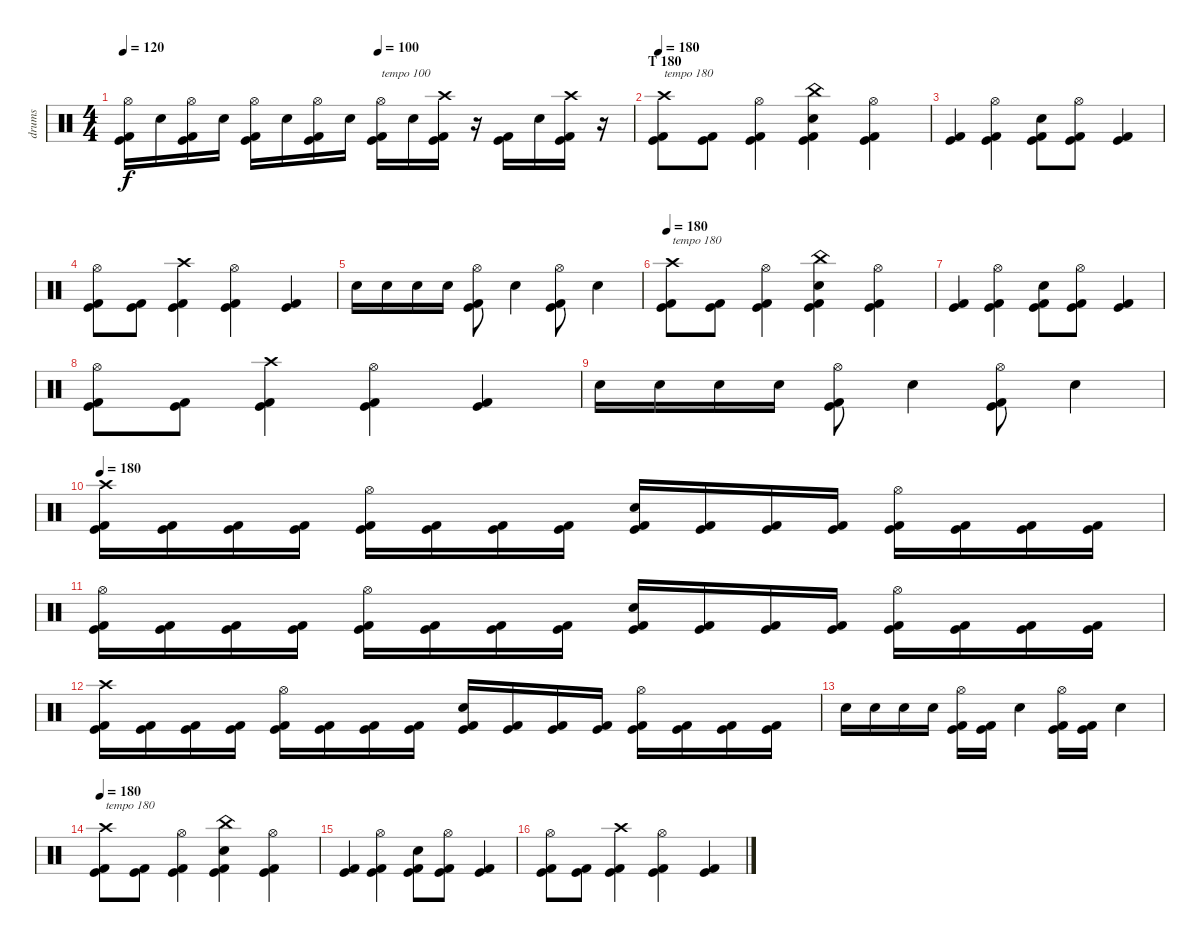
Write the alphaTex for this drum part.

\track ("drums" "drums") {instrument percussion}
\staff {score}
\articulation defaults
\ts (4 4)
\section ("" "")
\tempo 120
\tempo (100 0.5)
\clef neutral
\ks c
("Hi-Hat (open)" "Kick (hit) 2" "Kick (hit)").16{dy f} "Electric Snare (hit)".16 ("Hi-Hat (open)" "Kick (hit) 2" "Kick (hit)").16 "Electric Snare (hit)".16 ("Hi-Hat (open)" "Kick (hit) 2" "Kick (hit)").16 "Electric Snare (hit)".16 ("Hi-Hat (open)" "Kick (hit) 2" "Kick (hit)").16 "Electric Snare (hit)".16 ("Hi-Hat (open)" "Kick (hit) 2" "Kick (hit)").16{txt "tempo 100"} "Electric Snare (hit)".16 ("Crash high (hit)" "Kick (hit) 2" "Kick (hit)").16 r.16 ("Kick (hit) 2" "Kick (hit)").16 "Electric Snare (hit)".16 ("Crash high (hit)" "Kick (hit) 2" "Kick (hit)").16 r.16 |
\section ("" "T 180")
\tempo 180
("Crash high (hit)" "Kick (hit) 2" "Kick (hit)").8{txt "tempo 180"} ("Kick (hit) 2" "Kick (hit)").8 ("Hi-Hat (open)" "Kick (hit) 2" "Kick (hit)").4 ("China (hit)" "Electric Snare (hit)" "Kick (hit) 2" "Kick (hit)").4 ("Hi-Hat (open)" "Kick (hit)" "Kick (hit) 2").4 |
("Kick (hit) 2" "Kick (hit)").4 ("Hi-Hat (open)" "Kick (hit) 2" "Kick (hit)").4 ("Electric Snare (hit)" "Kick (hit) 2" "Kick (hit)").8 ("Hi-Hat (open)" "Kick (hit) 2" "Kick (hit)").8 ("Kick (hit) 2" "Kick (hit)").4 |
("Hi-Hat (open)" "Kick (hit) 2" "Kick (hit)").8 ("Kick (hit) 2" "Kick (hit)").8 ("Crash high (hit)" "Kick (hit) 2" "Kick (hit)").4 ("Hi-Hat (open)" "Kick (hit) 2" "Kick (hit)").4 ("Kick (hit) 2" "Kick (hit)").4 |
"Electric Snare (hit)".16 "Electric Snare (hit)".16 "Electric Snare (hit)".16 "Electric Snare (hit)".16 ("Hi-Hat (open)" "Kick (hit) 2" "Kick (hit)").8 "Electric Snare (hit)".4 ("Hi-Hat (open)" "Kick (hit) 2" "Kick (hit)").8 "Electric Snare (hit)".4 |
\tempo 180
("Crash high (hit)" "Kick (hit) 2" "Kick (hit)").8{txt "tempo 180"} ("Kick (hit) 2" "Kick (hit)").8 ("Hi-Hat (open)" "Kick (hit) 2" "Kick (hit)").4 ("China (hit)" "Electric Snare (hit)" "Kick (hit) 2" "Kick (hit)").4 ("Hi-Hat (open)" "Kick (hit)" "Kick (hit) 2").4 |
("Kick (hit) 2" "Kick (hit)").4 ("Hi-Hat (open)" "Kick (hit) 2" "Kick (hit)").4 ("Electric Snare (hit)" "Kick (hit) 2" "Kick (hit)").8 ("Hi-Hat (open)" "Kick (hit) 2" "Kick (hit)").8 ("Kick (hit) 2" "Kick (hit)").4 |
("Hi-Hat (open)" "Kick (hit) 2" "Kick (hit)").8 ("Kick (hit) 2" "Kick (hit)").8 ("Crash high (hit)" "Kick (hit) 2" "Kick (hit)").4 ("Hi-Hat (open)" "Kick (hit) 2" "Kick (hit)").4 ("Kick (hit) 2" "Kick (hit)").4 |
"Electric Snare (hit)".16 "Electric Snare (hit)".16 "Electric Snare (hit)".16 "Electric Snare (hit)".16 ("Hi-Hat (open)" "Kick (hit) 2" "Kick (hit)").8 "Electric Snare (hit)".4 ("Hi-Hat (open)" "Kick (hit) 2" "Kick (hit)").8 "Electric Snare (hit)".4 |
\tempo 180
("Crash high (hit)" "Kick (hit) 2" "Kick (hit)").16 ("Kick (hit) 2" "Kick (hit)").16 ("Kick (hit) 2" "Kick (hit)").16 ("Kick (hit) 2" "Kick (hit)").16 ("Hi-Hat (open)" "Kick (hit) 2" "Kick (hit)").16 ("Kick (hit) 2" "Kick (hit)").16 ("Kick (hit) 2" "Kick (hit)").16 ("Kick (hit) 2" "Kick (hit)").16 ("Electric Snare (hit)" "Kick (hit) 2" "Kick (hit)").16 ("Kick (hit) 2" "Kick (hit)").16 ("Kick (hit) 2" "Kick (hit)").16 ("Kick (hit) 2" "Kick (hit)").16 ("Hi-Hat (open)" "Kick (hit) 2" "Kick (hit)").16 ("Kick (hit) 2" "Kick (hit)").16 ("Kick (hit) 2" "Kick (hit)").16 ("Kick (hit) 2" "Kick (hit)").16 |
("Hi-Hat (open)" "Kick (hit) 2" "Kick (hit)").16 ("Kick (hit) 2" "Kick (hit)").16 ("Kick (hit) 2" "Kick (hit)").16 ("Kick (hit) 2" "Kick (hit)").16 ("Hi-Hat (open)" "Kick (hit) 2" "Kick (hit)").16 ("Kick (hit) 2" "Kick (hit)").16 ("Kick (hit) 2" "Kick (hit)").16 ("Kick (hit) 2" "Kick (hit)").16 ("Electric Snare (hit)" "Kick (hit) 2" "Kick (hit)").16 ("Kick (hit) 2" "Kick (hit)").16 ("Kick (hit) 2" "Kick (hit)").16 ("Kick (hit) 2" "Kick (hit)").16 ("Hi-Hat (open)" "Kick (hit) 2" "Kick (hit)").16 ("Kick (hit) 2" "Kick (hit)").16 ("Kick (hit) 2" "Kick (hit)").16 ("Kick (hit) 2" "Kick (hit)").16 |
("Crash high (hit)" "Kick (hit) 2" "Kick (hit)").16 ("Kick (hit) 2" "Kick (hit)").16 ("Kick (hit) 2" "Kick (hit)").16 ("Kick (hit) 2" "Kick (hit)").16 ("Hi-Hat (open)" "Kick (hit) 2" "Kick (hit)").16 ("Kick (hit) 2" "Kick (hit)").16 ("Kick (hit) 2" "Kick (hit)").16 ("Kick (hit) 2" "Kick (hit)").16 ("Electric Snare (hit)" "Kick (hit) 2" "Kick (hit)").16 ("Kick (hit) 2" "Kick (hit)").16 ("Kick (hit) 2" "Kick (hit)").16 ("Kick (hit) 2" "Kick (hit)").16 ("Hi-Hat (open)" "Kick (hit) 2" "Kick (hit)").16 ("Kick (hit) 2" "Kick (hit)").16 ("Kick (hit) 2" "Kick (hit)").16 ("Kick (hit) 2" "Kick (hit)").16 |
"Electric Snare (hit)".16 "Electric Snare (hit)".16 "Electric Snare (hit)".16 "Electric Snare (hit)".16 ("Hi-Hat (open)" "Kick (hit) 2" "Kick (hit)").16 ("Kick (hit) 2" "Kick (hit)").16 "Electric Snare (hit)".4 ("Hi-Hat (open)" "Kick (hit) 2" "Kick (hit)").16 ("Kick (hit) 2" "Kick (hit)").16 "Electric Snare (hit)".4 |
\tempo 180
("Crash high (hit)" "Kick (hit) 2" "Kick (hit)").8{txt "tempo 180"} ("Kick (hit) 2" "Kick (hit)").8 ("Hi-Hat (open)" "Kick (hit) 2" "Kick (hit)").4 ("China (hit)" "Electric Snare (hit)" "Kick (hit) 2" "Kick (hit)").4 ("Hi-Hat (open)" "Kick (hit)" "Kick (hit) 2").4 |
("Kick (hit) 2" "Kick (hit)").4 ("Hi-Hat (open)" "Kick (hit) 2" "Kick (hit)").4 ("Electric Snare (hit)" "Kick (hit) 2" "Kick (hit)").8 ("Hi-Hat (open)" "Kick (hit) 2" "Kick (hit)").8 ("Kick (hit) 2" "Kick (hit)").4 |
("Hi-Hat (open)" "Kick (hit) 2" "Kick (hit)").8 ("Kick (hit) 2" "Kick (hit)").8 ("Crash high (hit)" "Kick (hit) 2" "Kick (hit)").4 ("Hi-Hat (open)" "Kick (hit) 2" "Kick (hit)").4 ("Kick (hit) 2" "Kick (hit)").4
